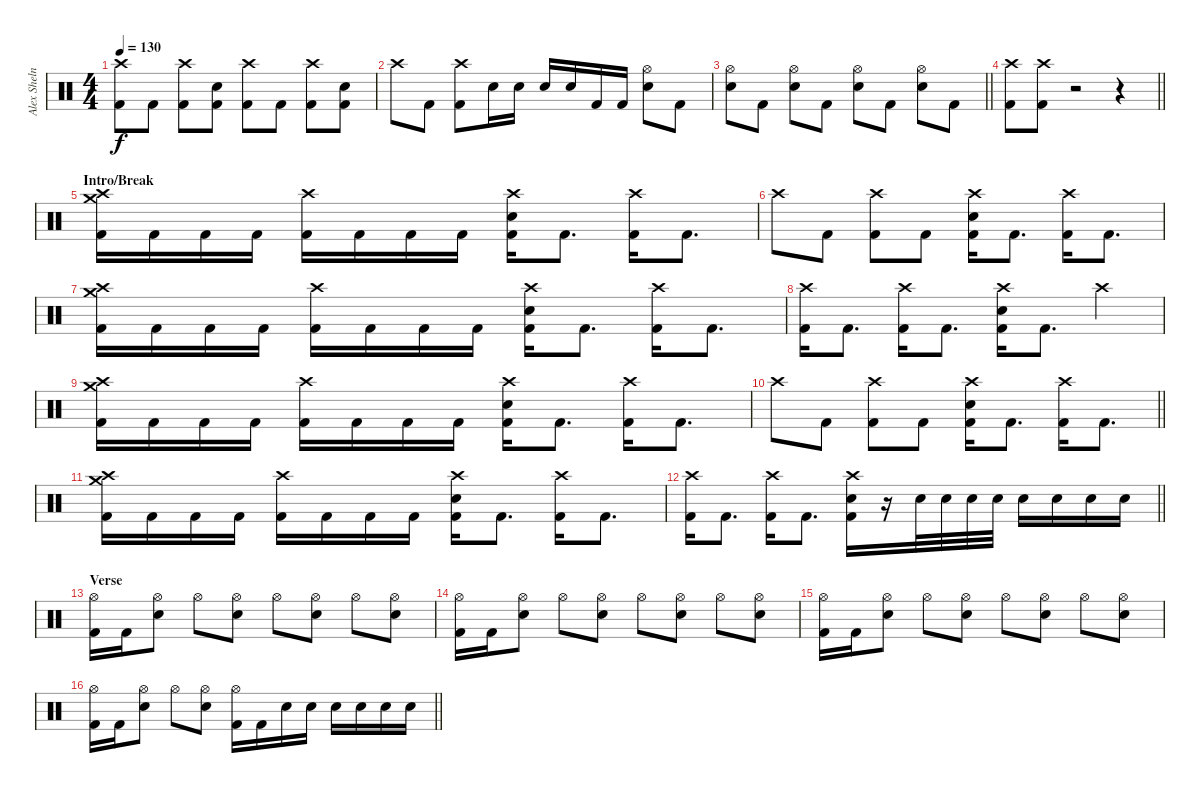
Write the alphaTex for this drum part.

\track ("Alex Shelnutt [Drums]" "Alex Sheln") {instrument percussion}
\staff {score}
\articulation defaults
\ts (4 4)
\tempo 130
\clef neutral
\ks c
("Crash high (hit)" "Kick (hit) 2").8{dy f} "Kick (hit) 2".8 ("Crash high (hit)" "Kick (hit) 2").8 ("Electric Snare (hit)" "Kick (hit) 2").8 ("Crash high (hit)" "Kick (hit) 2").8 "Kick (hit) 2".8 ("Crash high (hit)" "Kick (hit) 2").8 ("Electric Snare (hit)" "Kick (hit) 2").8 |
"Crash high (hit)".8 "Kick (hit) 2".8 ("Crash high (hit)" "Kick (hit) 2").8 "Electric Snare (hit)".16 "Electric Snare (hit)".16 "Electric Snare (hit)".16 "Electric Snare (hit)".16 "Kick (hit) 2".16 "Kick (hit) 2".16 ("Hi-Hat (open)" "Electric Snare (hit)").8 "Kick (hit) 2".8 |
\barLineRight lightlight
("Hi-Hat (open)" "Electric Snare (hit)").8 "Kick (hit) 2".8 ("Hi-Hat (open)" "Electric Snare (hit)").8 "Kick (hit) 2".8 ("Hi-Hat (open)" "Electric Snare (hit)").8 "Kick (hit) 2".8 ("Hi-Hat (open)" "Electric Snare (hit)").8 "Kick (hit) 2".8 |
\barLineRight lightlight
("Crash high (hit)" "Kick (hit) 2").8 ("Crash high (hit)" "Kick (hit) 2").8 r.2 r.4 |
\section ("" "Intro/Break")
("Crash high (hit)" "Crash medium (hit)" "Kick (hit) 2").16 "Kick (hit) 2".16 "Kick (hit) 2".16 "Kick (hit) 2".16 ("Crash high (hit)" "Kick (hit) 2").16 "Kick (hit) 2".16 "Kick (hit) 2".16 "Kick (hit) 2".16 ("Crash high (hit)" "Electric Snare (hit)" "Kick (hit) 2").16 "Kick (hit) 2".8{d} ("Crash high (hit)" "Kick (hit) 2").16 "Kick (hit) 2".8{d} |
"Crash high (hit)".8 "Kick (hit) 2".8 ("Crash high (hit)" "Kick (hit) 2").8 "Kick (hit) 2".8 ("Crash high (hit)" "Electric Snare (hit)" "Kick (hit) 2").16 "Kick (hit) 2".8{d} ("Crash high (hit)" "Kick (hit) 2").16 "Kick (hit) 2".8{d} |
("Crash high (hit)" "Crash medium (hit)" "Kick (hit) 2").16 "Kick (hit) 2".16 "Kick (hit) 2".16 "Kick (hit) 2".16 ("Crash high (hit)" "Kick (hit) 2").16 "Kick (hit) 2".16 "Kick (hit) 2".16 "Kick (hit) 2".16 ("Crash high (hit)" "Electric Snare (hit)" "Kick (hit) 2").16 "Kick (hit) 2".8{d} ("Crash high (hit)" "Kick (hit) 2").16 "Kick (hit) 2".8{d} |
("Crash high (hit)" "Kick (hit) 2").16 "Kick (hit) 2".8{d} ("Crash high (hit)" "Kick (hit) 2").16 "Kick (hit) 2".8{d} ("Crash high (hit)" "Electric Snare (hit)" "Kick (hit) 2").16 "Kick (hit) 2".8{d} "Crash high (hit)".4 |
("Crash high (hit)" "Crash medium (hit)" "Kick (hit) 2").16 "Kick (hit) 2".16 "Kick (hit) 2".16 "Kick (hit) 2".16 ("Crash high (hit)" "Kick (hit) 2").16 "Kick (hit) 2".16 "Kick (hit) 2".16 "Kick (hit) 2".16 ("Crash high (hit)" "Electric Snare (hit)" "Kick (hit) 2").16 "Kick (hit) 2".8{d} ("Crash high (hit)" "Kick (hit) 2").16 "Kick (hit) 2".8{d} |
\barLineRight lightlight "Crash high (hit)".8 "Kick (hit) 2".8
("Crash high (hit)" "Kick (hit) 2").8 "Kick (hit) 2".8 ("Crash high (hit)" "Electric Snare (hit)" "Kick (hit) 2").16 "Kick (hit) 2".8{d} ("Crash high (hit)" "Kick (hit) 2").16 "Kick (hit) 2".8{d} |
("Crash high (hit)" "Crash medium (hit)" "Kick (hit) 2").16 "Kick (hit) 2".16 "Kick (hit) 2".16 "Kick (hit) 2".16 ("Crash high (hit)" "Kick (hit) 2").16 "Kick (hit) 2".16 "Kick (hit) 2".16 "Kick (hit) 2".16 ("Crash high (hit)" "Electric Snare (hit)" "Kick (hit) 2").16 "Kick (hit) 2".8{d} ("Crash high (hit)" "Kick (hit) 2").16 "Kick (hit) 2".8{d} |
\barLineRight lightlight
("Crash high (hit)" "Kick (hit) 2").16 "Kick (hit) 2".8{d} ("Crash high (hit)" "Kick (hit) 2").16 "Kick (hit) 2".8{d} ("Crash high (hit)" "Electric Snare (hit)" "Kick (hit) 2").16 r.16 "Electric Snare (hit)".32 "Electric Snare (hit)".32 "Electric Snare (hit)".32 "Electric Snare (hit)".32 "Electric Snare (hit)".16 "Electric Snare (hit)".16 "Electric Snare (hit)".16 "Electric Snare (hit)".16 |
\section ("" "Verse")
("Hi-Hat (open)" "Kick (hit) 2").16 "Kick (hit) 2".16 ("Hi-Hat (open)" "Electric Snare (hit)").8 "Hi-Hat (open)".8 ("Hi-Hat (open)" "Electric Snare (hit)").8 "Hi-Hat (open)".8 ("Hi-Hat (open)" "Electric Snare (hit)").8 "Hi-Hat (open)".8 ("Hi-Hat (open)" "Electric Snare (hit)").8 |
("Hi-Hat (open)" "Kick (hit) 2").16 "Kick (hit) 2".16 ("Hi-Hat (open)" "Electric Snare (hit)").8 "Hi-Hat (open)".8 ("Hi-Hat (open)" "Electric Snare (hit)").8 "Hi-Hat (open)".8 ("Hi-Hat (open)" "Electric Snare (hit)").8 "Hi-Hat (open)".8 ("Hi-Hat (open)" "Electric Snare (hit)").8 |
("Hi-Hat (open)" "Kick (hit) 2").16 "Kick (hit) 2".16 ("Hi-Hat (open)" "Electric Snare (hit)").8 "Hi-Hat (open)".8 ("Hi-Hat (open)" "Electric Snare (hit)").8 "Hi-Hat (open)".8 ("Hi-Hat (open)" "Electric Snare (hit)").8 "Hi-Hat (open)".8 ("Hi-Hat (open)" "Electric Snare (hit)").8 |
\barLineRight lightlight
("Hi-Hat (open)" "Kick (hit) 2").16 "Kick (hit) 2".16 ("Hi-Hat (open)" "Electric Snare (hit)").8 "Hi-Hat (open)".8 ("Hi-Hat (open)" "Electric Snare (hit)").8 ("Hi-Hat (open)" "Kick (hit) 2").16 "Kick (hit) 2".16 "Electric Snare (hit)".16 "Electric Snare (hit)".16 "Electric Snare (hit)".16 "Electric Snare (hit)".16 "Electric Snare (hit)".16 "Electric Snare (hit)".16
